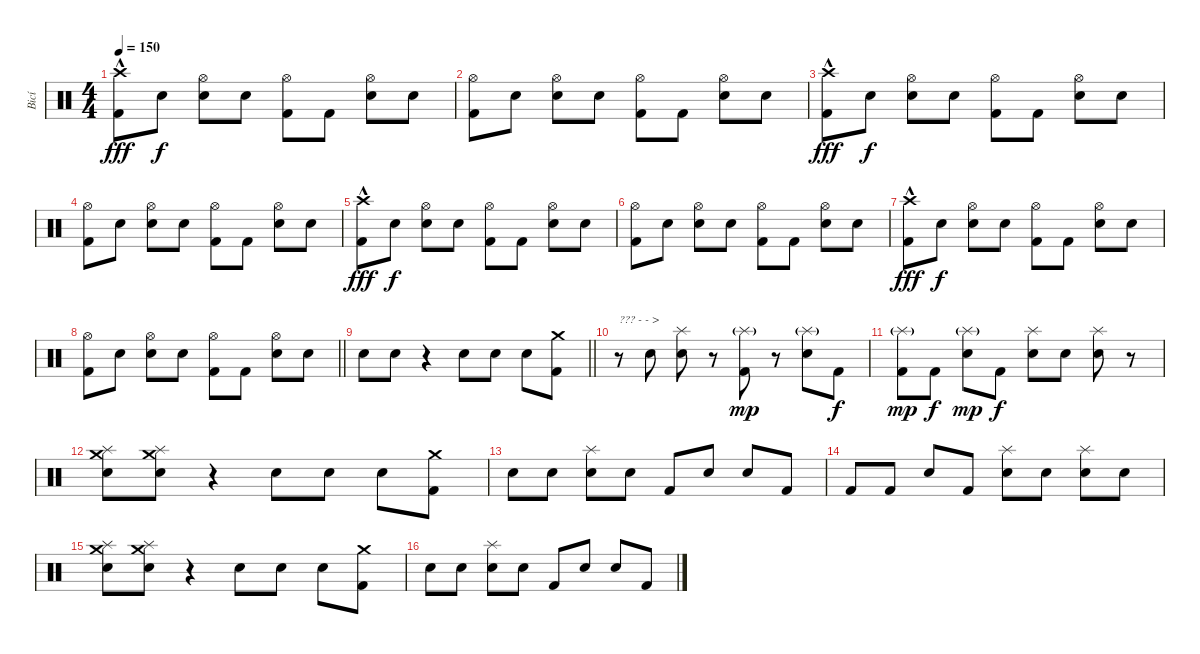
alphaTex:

\track ("Bicí" "Bicí") {instrument percussion}
\staff {score}
\articulation defaults
\ts (4 4)
\tempo 150
\clef neutral
\ks c
("Crash high (hit)"{hac} "Kick (hit) 2").8{dy fff} "Snare (hit)".8{dy f} ("Hi-Hat (open)" "Electric Snare (hit)").8 "Snare (hit)".8 ("Hi-Hat (open)" "Kick (hit) 2").8 "Kick (hit) 2".8 ("Hi-Hat (open)" "Electric Snare (hit)").8 "Snare (hit)".8 |
("Hi-Hat (open)" "Kick (hit) 2").8 "Snare (hit)".8 ("Hi-Hat (open)" "Electric Snare (hit)").8 "Snare (hit)".8 ("Hi-Hat (open)" "Kick (hit) 2").8 "Kick (hit) 2".8 ("Hi-Hat (open)" "Electric Snare (hit)").8 "Snare (hit)".8 |
("Crash high (hit)"{hac} "Kick (hit) 2").8{dy fff} "Snare (hit)".8{dy f} ("Hi-Hat (open)" "Electric Snare (hit)").8 "Snare (hit)".8 ("Hi-Hat (open)" "Kick (hit) 2").8 "Kick (hit) 2".8 ("Hi-Hat (open)" "Electric Snare (hit)").8 "Snare (hit)".8 |
("Hi-Hat (open)" "Kick (hit) 2").8 "Snare (hit)".8 ("Hi-Hat (open)" "Electric Snare (hit)").8 "Snare (hit)".8 ("Hi-Hat (open)" "Kick (hit) 2").8 "Kick (hit) 2".8 ("Hi-Hat (open)" "Electric Snare (hit)").8 "Snare (hit)".8 |
("Crash high (hit)"{hac} "Kick (hit) 2").8{dy fff} "Snare (hit)".8{dy f} ("Hi-Hat (open)" "Electric Snare (hit)").8 "Snare (hit)".8 ("Hi-Hat (open)" "Kick (hit) 2").8 "Kick (hit) 2".8 ("Hi-Hat (open)" "Electric Snare (hit)").8 "Snare (hit)".8 |
("Hi-Hat (open)" "Kick (hit) 2").8 "Snare (hit)".8 ("Hi-Hat (open)" "Electric Snare (hit)").8 "Snare (hit)".8 ("Hi-Hat (open)" "Kick (hit) 2").8 "Kick (hit) 2".8 ("Hi-Hat (open)" "Electric Snare (hit)").8 "Snare (hit)".8 |
("Crash high (hit)"{hac} "Kick (hit) 2").8{dy fff} "Snare (hit)".8{dy f} ("Hi-Hat (open)" "Electric Snare (hit)").8 "Snare (hit)".8 ("Hi-Hat (open)" "Kick (hit) 2").8 "Kick (hit) 2".8 ("Hi-Hat (open)" "Electric Snare (hit)").8 "Snare (hit)".8 |
\barLineRight lightlight
("Hi-Hat (open)" "Kick (hit) 2").8 "Snare (hit)".8 ("Hi-Hat (open)" "Electric Snare (hit)").8 "Snare (hit)".8 ("Hi-Hat (open)" "Kick (hit) 2").8 "Kick (hit) 2".8 ("Hi-Hat (open)" "Electric Snare (hit)").8 "Snare (hit)".8 |
\section ("" "")
\barLineRight lightlight "Electric Snare (hit)".8 "Electric Snare (hit)".8
r.4 "Electric Snare (hit)".8 "Electric Snare (hit)".8 "Electric Snare (hit)".8 ("Crash medium (hit)" "Kick (hit) 2").8 |
r.8{txt "??? - - >"} "Snare (hit)".8 ("Splash (hit)" "Electric Snare (hit)").8 r.8 ("Splash (hit)"{g} "Kick (hit) 2").8{dy mp} r.8 ("Splash (hit)"{g} "Electric Snare (hit)").8 "Kick (hit) 2".8{dy f} |
("Splash (hit)"{g} "Kick (hit) 2").8{dy mp} "Kick (hit) 2".8{dy f} ("Splash (hit)"{g} "Electric Snare (hit)").8{dy mp} "Kick (hit) 2".8{dy f} ("Splash (hit)" "Electric Snare (hit)").8 "Snare (hit)".8 ("Splash (hit)" "Electric Snare (hit)").8 r.8 |
("Crash medium (hit)" "Splash (hit)" "Electric Snare (hit)").8 ("Crash medium (hit)" "Splash (hit)" "Electric Snare (hit)").8 r.4 "Electric Snare (hit)".8 "Electric Snare (hit)".8 "Electric Snare (hit)".8 ("Crash medium (hit)" "Kick (hit) 2").8 |
"Snare (hit)".8 "Snare (hit)".8 ("Splash (hit)" "Electric Snare (hit)").8 "Snare (hit)".8 "Kick (hit) 2".8 "Snare (hit)".8 "Electric Snare (hit)".8 "Kick (hit) 2".8 |
"Kick (hit) 2".8 "Kick (hit) 2".8 "Electric Snare (hit)".8 "Kick (hit) 2".8 ("Splash (hit)" "Electric Snare (hit)").8 "Snare (hit)".8 ("Splash (hit)" "Electric Snare (hit)").8 "Snare (hit)".8 |
("Crash medium (hit)" "Splash (hit)" "Electric Snare (hit)").8 ("Crash medium (hit)" "Splash (hit)" "Electric Snare (hit)").8 r.4 "Electric Snare (hit)".8 "Electric Snare (hit)".8 "Electric Snare (hit)".8 ("Crash medium (hit)" "Kick (hit) 2").8 |
"Snare (hit)".8 "Snare (hit)".8 ("Splash (hit)" "Electric Snare (hit)").8 "Snare (hit)".8 "Kick (hit) 2".8 "Snare (hit)".8 "Electric Snare (hit)".8 "Kick (hit) 2".8
